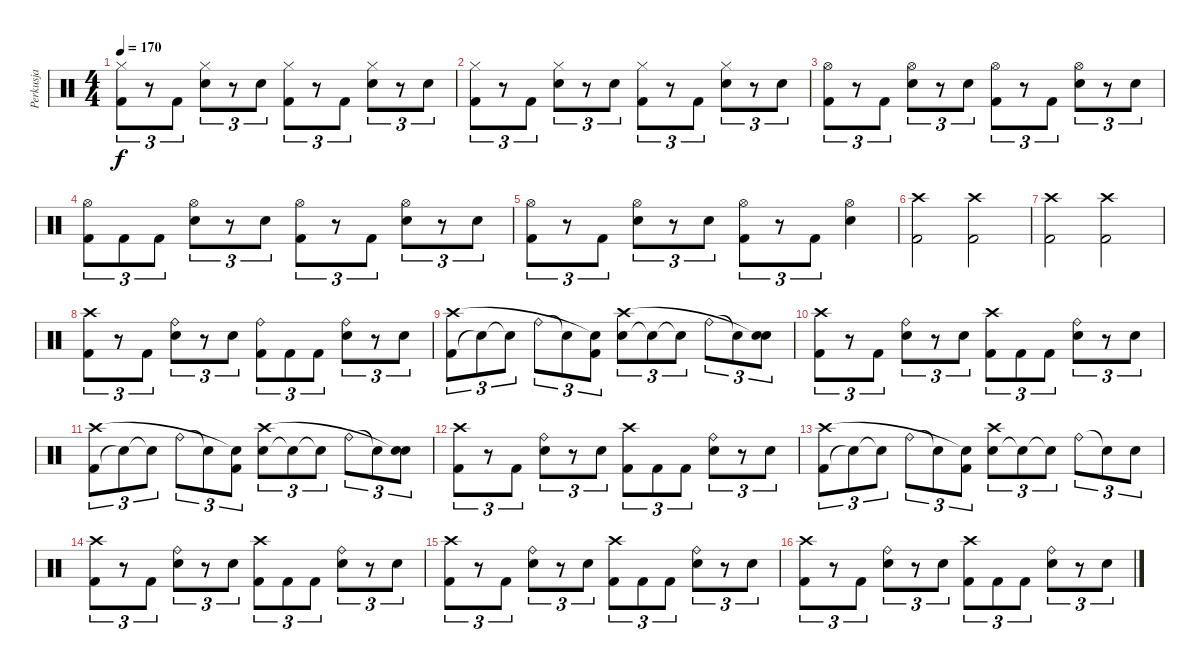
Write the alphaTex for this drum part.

\track ("Perkusja" "Perkusja") {instrument percussion}
\staff {score}
\articulation defaults
\ts (4 4)
\tempo 170
\clef neutral
\ks c
("Kick (hit) 2" "Hi-Hat (closed)").8{tu (3 2) dy f} r.8{tu (3 2)} "Kick (hit) 2".8{tu (3 2)} ("Electric Snare (hit)" "Hi-Hat (closed)").8{tu (3 2)} r.8{tu (3 2)} "Electric Snare (hit)".8{tu (3 2)} ("Kick (hit) 2" "Hi-Hat (closed)").8{tu (3 2)} r.8{tu (3 2)} "Kick (hit) 2".8{tu (3 2)} ("Electric Snare (hit)" "Hi-Hat (closed)").8{tu (3 2)} r.8{tu (3 2)} "Electric Snare (hit)".8{tu (3 2)} |
("Kick (hit) 2" "Hi-Hat (closed)").8{tu (3 2)} r.8{tu (3 2)} "Kick (hit) 2".8{tu (3 2)} ("Electric Snare (hit)" "Hi-Hat (closed)").8{tu (3 2)} r.8{tu (3 2)} "Electric Snare (hit)".8{tu (3 2)} ("Kick (hit) 2" "Hi-Hat (closed)").8{tu (3 2)} r.8{tu (3 2)} "Kick (hit) 2".8{tu (3 2)} ("Electric Snare (hit)" "Hi-Hat (closed)").8{tu (3 2)} r.8{tu (3 2)} "Electric Snare (hit)".8{tu (3 2)} |
("Kick (hit) 2" "Hi-Hat (open)").8{tu (3 2)} r.8{tu (3 2)} "Kick (hit) 2".8{tu (3 2)} ("Electric Snare (hit)" "Hi-Hat (open)").8{tu (3 2)} r.8{tu (3 2)} "Electric Snare (hit)".8{tu (3 2)} ("Kick (hit) 2" "Hi-Hat (open)").8{tu (3 2)} r.8{tu (3 2)} "Kick (hit) 2".8{tu (3 2)} ("Electric Snare (hit)" "Hi-Hat (open)").8{tu (3 2)} r.8{tu (3 2)} "Electric Snare (hit)".8{tu (3 2)} |
("Kick (hit) 2" "Hi-Hat (open)").8{tu (3 2)} "Kick (hit) 2".8{tu (3 2)} "Kick (hit) 2".8{tu (3 2)} ("Electric Snare (hit)" "Hi-Hat (open)").8{tu (3 2)} r.8{tu (3 2)} "Electric Snare (hit)".8{tu (3 2)} ("Kick (hit) 2" "Hi-Hat (open)").8{tu (3 2)} r.8{tu (3 2)} "Kick (hit) 2".8{tu (3 2)} ("Electric Snare (hit)" "Hi-Hat (open)").8{tu (3 2)} r.8{tu (3 2)} "Electric Snare (hit)".8{tu (3 2)} |
("Kick (hit) 2" "Hi-Hat (open)").8{tu (3 2)} r.8{tu (3 2)} "Kick (hit) 2".8{tu (3 2)} ("Electric Snare (hit)" "Hi-Hat (open)").8{tu (3 2)} r.8{tu (3 2)} "Electric Snare (hit)".8{tu (3 2)} ("Kick (hit) 2" "Hi-Hat (open)").8{tu (3 2)} r.8{tu (3 2)} "Kick (hit) 2".8{tu (3 2)} ("Electric Snare (hit)" "Hi-Hat (open)").4 |
("Kick (hit) 2" "Crash high (hit)").2 ("Kick (hit) 2" "Crash high (hit)").2 |
("Kick (hit) 2" "Crash high (hit)").2 ("Kick (hit) 2" "Crash high (hit)").2 |
("Kick (hit) 2" "Crash high (hit)").8{tu (3 2)} r.8{tu (3 2)} "Kick (hit) 2".8{tu (3 2)} ("Electric Snare (hit)" "Ride (bell)").8{tu (3 2)} r.8{tu (3 2)} "Electric Snare (hit)".8{tu (3 2)} ("Kick (hit) 2" "Ride (bell)").8{tu (3 2)} "Kick (hit) 2".8{tu (3 2)} "Kick (hit) 2".8{tu (3 2)} ("Electric Snare (hit)" "Ride (bell)").8{tu (3 2)} r.8{tu (3 2)} "Electric Snare (hit)".8{tu (3 2)} |
("Kick (hit) 2" "Crash high (hit)").8{tu (3 2)} "Snare (hit)"{t}.8{tu (3 2)} "Snare (hit)"{t}.8{tu (3 2)} "Ride (bell)".8{tu (3 2)} "Snare (hit)"{t}.8{tu (3 2)} ("Kick (hit) 2" "Snare (hit)"{t}).8{tu (3 2)} ("Electric Snare (hit)" "Crash high (hit)").8{tu (3 2)} "Snare (hit)"{t}.8{tu (3 2)} "Snare (hit)"{t}.8{tu (3 2)} "Ride (bell)".8{tu (3 2)} "Snare (hit)"{t}.8{tu (3 2)} ("Electric Snare (hit)" "Snare (hit)"{t}).8{tu (3 2)} |
("Kick (hit) 2" "Crash high (hit)").8{tu (3 2)} r.8{tu (3 2)} "Kick (hit) 2".8{tu (3 2)} ("Electric Snare (hit)" "Ride (bell)").8{tu (3 2)} r.8{tu (3 2)} "Electric Snare (hit)".8{tu (3 2)} ("Kick (hit) 2" "Crash high (hit)").8{tu (3 2)} "Kick (hit) 2".8{tu (3 2)} "Kick (hit) 2".8{tu (3 2)} ("Electric Snare (hit)" "Ride (bell)").8{tu (3 2)} r.8{tu (3 2)} "Electric Snare (hit)".8{tu (3 2)} |
("Kick (hit) 2" "Crash high (hit)").8{tu (3 2)} "Snare (hit)"{t}.8{tu (3 2)} "Snare (hit)"{t}.8{tu (3 2)} "Ride (bell)".8{tu (3 2)} "Snare (hit)"{t}.8{tu (3 2)} ("Kick (hit) 2" "Snare (hit)"{t}).8{tu (3 2)} ("Electric Snare (hit)" "Crash high (hit)").8{tu (3 2)} "Snare (hit)"{t}.8{tu (3 2)} "Snare (hit)"{t}.8{tu (3 2)} "Ride (bell)".8{tu (3 2)} "Snare (hit)"{t}.8{tu (3 2)} ("Electric Snare (hit)" "Snare (hit)"{t}).8{tu (3 2)} |
("Kick (hit) 2" "Crash high (hit)").8{tu (3 2)} r.8{tu (3 2)} "Kick (hit) 2".8{tu (3 2)} ("Electric Snare (hit)" "Ride (bell)").8{tu (3 2)} r.8{tu (3 2)} "Electric Snare (hit)".8{tu (3 2)} ("Kick (hit) 2" "Crash high (hit)").8{tu (3 2)} "Kick (hit) 2".8{tu (3 2)} "Kick (hit) 2".8{tu (3 2)} ("Electric Snare (hit)" "Ride (bell)").8{tu (3 2)} r.8{tu (3 2)} "Electric Snare (hit)".8{tu (3 2)} |
("Kick (hit) 2" "Crash high (hit)").8{tu (3 2)} "Snare (hit)"{t}.8{tu (3 2)} "Snare (hit)"{t}.8{tu (3 2)} "Ride (bell)".8{tu (3 2)} "Snare (hit)"{t}.8{tu (3 2)} ("Kick (hit) 2" "Snare (hit)"{t}).8{tu (3 2)} ("Electric Snare (hit)" "Crash high (hit)").8{tu (3 2)} "Snare (hit)"{t}.8{tu (3 2)} "Snare (hit)"{t}.8{tu (3 2)} "Ride (bell)".8{tu (3 2)} "Snare (hit)"{t}.8{tu (3 2)} "Electric Snare (hit)".8{tu (3 2)} |
("Kick (hit) 2" "Crash high (hit)").8{tu (3 2)} r.8{tu (3 2)} "Kick (hit) 2".8{tu (3 2)} ("Electric Snare (hit)" "Ride (bell)").8{tu (3 2)} r.8{tu (3 2)} "Electric Snare (hit)".8{tu (3 2)} ("Kick (hit) 2" "Crash high (hit)").8{tu (3 2)} "Kick (hit) 2".8{tu (3 2)} "Kick (hit) 2".8{tu (3 2)} ("Electric Snare (hit)" "Ride (bell)").8{tu (3 2)} r.8{tu (3 2)} "Electric Snare (hit)".8{tu (3 2)} |
("Kick (hit) 2" "Crash high (hit)").8{tu (3 2)} r.8{tu (3 2)} "Kick (hit) 2".8{tu (3 2)} ("Electric Snare (hit)" "Ride (bell)").8{tu (3 2)} r.8{tu (3 2)} "Electric Snare (hit)".8{tu (3 2)} ("Kick (hit) 2" "Crash high (hit)").8{tu (3 2)} "Kick (hit) 2".8{tu (3 2)} "Kick (hit) 2".8{tu (3 2)} ("Electric Snare (hit)" "Ride (bell)").8{tu (3 2)} r.8{tu (3 2)} "Electric Snare (hit)".8{tu (3 2)} |
("Kick (hit) 2" "Crash high (hit)").8{tu (3 2)} r.8{tu (3 2)} "Kick (hit) 2".8{tu (3 2)} ("Electric Snare (hit)" "Ride (bell)").8{tu (3 2)} r.8{tu (3 2)} "Electric Snare (hit)".8{tu (3 2)} ("Kick (hit) 2" "Crash high (hit)").8{tu (3 2)} "Kick (hit) 2".8{tu (3 2)} "Kick (hit) 2".8{tu (3 2)} ("Electric Snare (hit)" "Ride (bell)").8{tu (3 2)} r.8{tu (3 2)} "Electric Snare (hit)".8{tu (3 2)}
